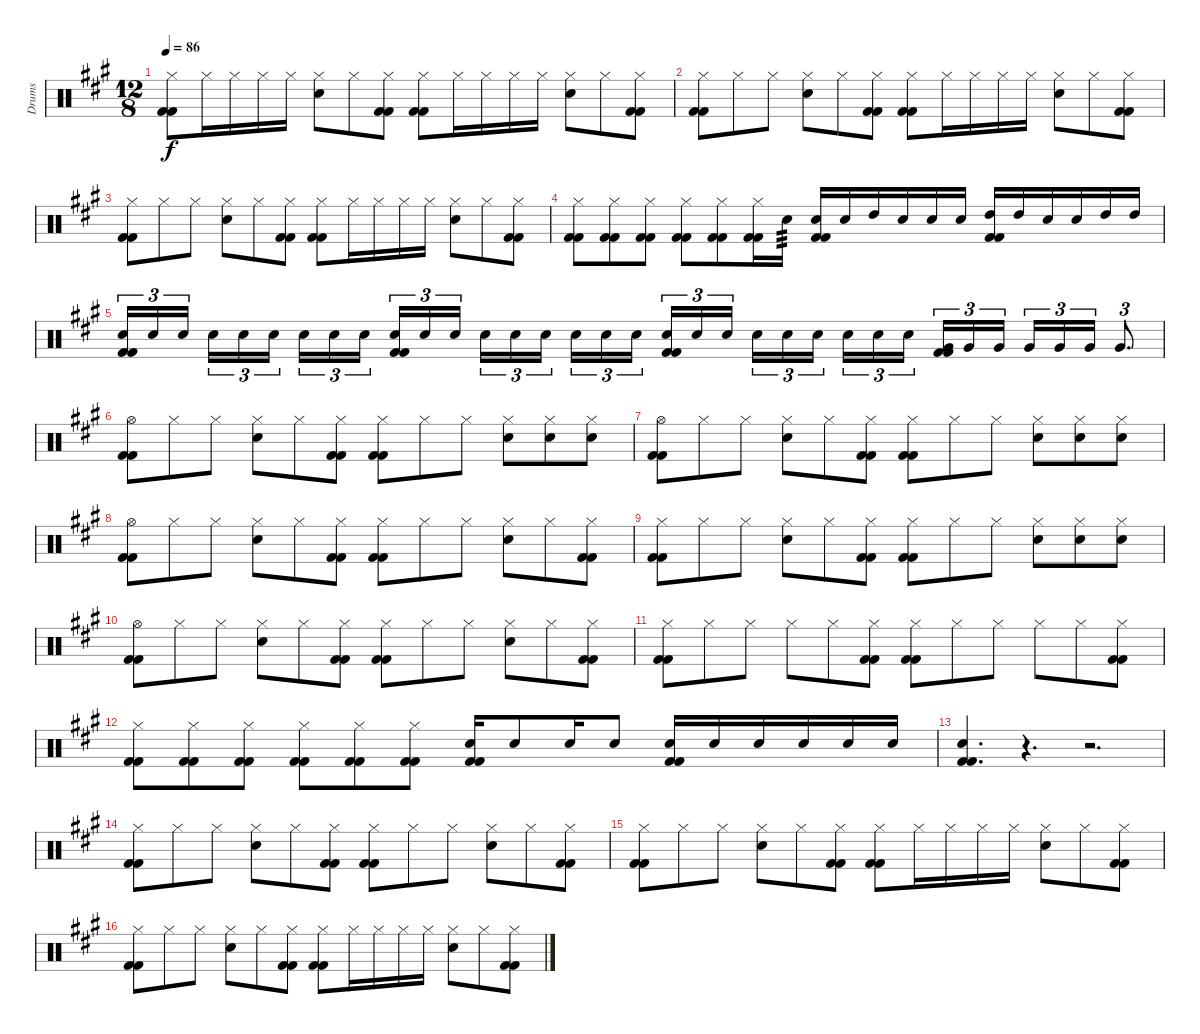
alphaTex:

\track ("Drums" "Drums") {instrument percussion}
\staff {score}
\articulation defaults
\ts (12 8)
\tempo 86
\clef neutral
\ks a
("Hi-Hat (closed)" "Kick (hit) 2" "Kick (hit) 2").8{dy f} "Hi-Hat (closed)".16 "Hi-Hat (closed)".16 "Hi-Hat (closed)".16 "Hi-Hat (closed)".16 ("Hi-Hat (closed)" "Snare (hit) 2").8 "Hi-Hat (closed)".8 ("Hi-Hat (closed)" "Kick (hit) 2" "Kick (hit) 2").8 ("Hi-Hat (closed)" "Kick (hit) 2" "Kick (hit) 2").8 "Hi-Hat (closed)".16 "Hi-Hat (closed)".16 "Hi-Hat (closed)".16 "Hi-Hat (closed)".16 ("Hi-Hat (closed)" "Snare (hit) 2").8 "Hi-Hat (closed)".8 ("Hi-Hat (closed)" "Kick (hit) 2" "Kick (hit) 2").8 |
("Hi-Hat (closed)" "Kick (hit) 2" "Kick (hit) 2").8 "Hi-Hat (closed)".8 "Hi-Hat (closed)".8 ("Hi-Hat (closed)" "Snare (hit) 2").8 "Hi-Hat (closed)".8 ("Hi-Hat (closed)" "Kick (hit) 2" "Kick (hit) 2").8 ("Hi-Hat (closed)" "Kick (hit) 2" "Kick (hit) 2").8 "Hi-Hat (closed)".16 "Hi-Hat (closed)".16 "Hi-Hat (closed)".16 "Hi-Hat (closed)".16 ("Hi-Hat (closed)" "Snare (hit) 2").8 "Hi-Hat (closed)".8 ("Hi-Hat (closed)" "Kick (hit) 2" "Kick (hit) 2").8 |
("Hi-Hat (closed)" "Kick (hit) 2" "Kick (hit) 2").8 "Hi-Hat (closed)".8 "Hi-Hat (closed)".8 ("Hi-Hat (closed)" "Snare (hit) 2").8 "Hi-Hat (closed)".8 ("Hi-Hat (closed)" "Kick (hit) 2" "Kick (hit) 2").8 ("Hi-Hat (closed)" "Kick (hit) 2" "Kick (hit) 2").8 "Hi-Hat (closed)".16 "Hi-Hat (closed)".16 "Hi-Hat (closed)".16 "Hi-Hat (closed)".16 ("Hi-Hat (closed)" "Snare (hit) 2").8 "Hi-Hat (closed)".8 ("Hi-Hat (closed)" "Kick (hit) 2" "Kick (hit) 2").8 |
("Hi-Hat (closed)" "Kick (hit) 2" "Kick (hit) 2").8 ("Hi-Hat (closed)" "Kick (hit) 2" "Kick (hit) 2").8 ("Hi-Hat (closed)" "Kick (hit) 2" "Kick (hit) 2").8 ("Hi-Hat (closed)" "Kick (hit) 2" "Kick (hit) 2").8 ("Hi-Hat (closed)" "Kick (hit) 2" "Kick (hit) 2").8 ("Hi-Hat (closed)" "Kick (hit) 2" "Kick (hit) 2").16 "Snare (hit) 2".16{tp 3} ("Snare (hit) 2" "Kick (hit) 2" "Kick (hit) 2").16 "Snare (hit) 2".16 "High Tom (hit)".16 "Snare (hit) 2".16 "Snare (hit) 2".16 "Snare (hit) 2".16 ("High Tom (hit)" "Kick (hit) 2" "Kick (hit) 2").16 "High Tom (hit)".16 "Snare (hit) 2".16 "Snare (hit) 2".16 "High Tom (hit)".16 "High Tom (hit)".16 |
("Snare (hit) 2" "Kick (hit) 2" "Kick (hit) 2").16{tu (3 2)} "Snare (hit) 2".16{tu (3 2)} "Snare (hit) 2".16{tu (3 2) beam splitsecondary} "Snare (hit) 2".16{tu (3 2)} "Snare (hit) 2".16{tu (3 2)} "Snare (hit) 2".16{tu (3 2) beam splitsecondary} "Snare (hit) 2".16{tu (3 2)} "Snare (hit) 2".16{tu (3 2)} "Snare (hit) 2".16{tu (3 2)} ("Snare (hit) 2" "Kick (hit) 2" "Kick (hit) 2").16{tu (3 2)} "Snare (hit) 2".16{tu (3 2)} "Snare (hit) 2".16{tu (3 2) beam splitsecondary} "Snare (hit) 2".16{tu (3 2)} "Snare (hit) 2".16{tu (3 2)} "Snare (hit) 2".16{tu (3 2) beam splitsecondary} "Snare (hit) 2".16{tu (3 2)} "Snare (hit) 2".16{tu (3 2)} "Snare (hit) 2".16{tu (3 2)} ("Snare (hit) 2" "Kick (hit) 2" "Kick (hit) 2").16{tu (3 2)} "Snare (hit) 2".16{tu (3 2)} "Snare (hit) 2".16{tu (3 2) beam splitsecondary} "Snare (hit) 2".16{tu (3 2)} "Snare (hit) 2".16{tu (3 2)} "Snare (hit) 2".16{tu (3 2) beam splitsecondary} "Snare (hit) 2".16{tu (3 2)} "Snare (hit) 2".16{tu (3 2)} "Snare (hit) 2".16{tu (3 2)} ("Very Low Tom (hit)" "Kick (hit) 2" "Kick (hit) 2").16{tu (3 2)} "Very Low Tom (hit)".16{tu (3 2)} "Very Low Tom (hit)".16{tu (3 2) beam splitsecondary} "Very Low Tom (hit)".16{tu (3 2)} "Very Low Tom (hit)".16{tu (3 2)} "Very Low Tom (hit)".16{tu (3 2)} "Very Low Tom (hit)".8{d tu (3 2)} |
("Hi-Hat (open)" "Kick (hit) 2" "Kick (hit) 2").8 "Hi-Hat (closed)".8 "Hi-Hat (closed)".8 ("Hi-Hat (closed)" "Snare (hit) 2").8 "Hi-Hat (closed)".8 ("Hi-Hat (closed)" "Kick (hit) 2" "Kick (hit) 2").8 ("Hi-Hat (closed)" "Kick (hit) 2" "Kick (hit) 2").8 "Hi-Hat (closed)".8 "Hi-Hat (closed)".8 ("Hi-Hat (closed)" "Snare (hit) 2").8 ("Hi-Hat (closed)" "Snare (hit) 2").8 ("Hi-Hat (closed)" "Snare (hit) 2").8 |
("Hi-Hat (open)" "Kick (hit) 2" "Kick (hit) 2").8 "Hi-Hat (closed)".8 "Hi-Hat (closed)".8 ("Hi-Hat (closed)" "Snare (hit) 2").8 "Hi-Hat (closed)".8 ("Hi-Hat (closed)" "Kick (hit) 2" "Kick (hit) 2").8 ("Hi-Hat (closed)" "Kick (hit) 2" "Kick (hit) 2").8 "Hi-Hat (closed)".8 "Hi-Hat (closed)".8 ("Hi-Hat (closed)" "Snare (hit) 2").8 ("Hi-Hat (closed)" "Snare (hit) 2").8 ("Hi-Hat (closed)" "Snare (hit) 2").8 |
("Hi-Hat (open)" "Kick (hit) 2" "Kick (hit) 2").8 "Hi-Hat (closed)".8 "Hi-Hat (closed)".8 ("Hi-Hat (closed)" "Snare (hit) 2").8 "Hi-Hat (closed)".8 ("Hi-Hat (closed)" "Kick (hit) 2" "Kick (hit) 2").8 ("Hi-Hat (closed)" "Kick (hit) 2" "Kick (hit) 2").8 "Hi-Hat (closed)".8 "Hi-Hat (closed)".8 ("Hi-Hat (closed)" "Snare (hit) 2").8 "Hi-Hat (closed)".8 ("Hi-Hat (closed)" "Kick (hit) 2" "Kick (hit) 2").8 |
("Hi-Hat (closed)" "Kick (hit) 2" "Kick (hit) 2").8 "Hi-Hat (closed)".8 "Hi-Hat (closed)".8 ("Hi-Hat (closed)" "Snare (hit) 2").8 "Hi-Hat (closed)".8 ("Hi-Hat (closed)" "Kick (hit) 2" "Kick (hit) 2").8 ("Hi-Hat (closed)" "Kick (hit) 2" "Kick (hit) 2").8 "Hi-Hat (closed)".8 "Hi-Hat (closed)".8 ("Hi-Hat (closed)" "Snare (hit) 2").8 ("Hi-Hat (closed)" "Snare (hit) 2").8 ("Hi-Hat (closed)" "Snare (hit) 2").8 |
("Hi-Hat (open)" "Kick (hit) 2" "Kick (hit) 2").8 "Hi-Hat (closed)".8 "Hi-Hat (closed)".8 ("Hi-Hat (closed)" "Snare (hit) 2").8 "Hi-Hat (closed)".8 ("Hi-Hat (closed)" "Kick (hit) 2" "Kick (hit) 2").8 ("Hi-Hat (closed)" "Kick (hit) 2" "Kick (hit) 2").8 "Hi-Hat (closed)".8 "Hi-Hat (closed)".8 ("Hi-Hat (closed)" "Snare (hit) 2").8 "Hi-Hat (closed)".8 ("Hi-Hat (closed)" "Kick (hit) 2" "Kick (hit) 2").8 |
("Hi-Hat (closed)" "Kick (hit) 2" "Kick (hit) 2").8 "Hi-Hat (closed)".8 "Hi-Hat (closed)".8 "Hi-Hat (closed)".8 "Hi-Hat (closed)".8 ("Hi-Hat (closed)" "Kick (hit) 2" "Kick (hit) 2").8 ("Hi-Hat (closed)" "Kick (hit) 2" "Kick (hit) 2").8 "Hi-Hat (closed)".8 "Hi-Hat (closed)".8 "Hi-Hat (closed)".8 "Hi-Hat (closed)".8 ("Hi-Hat (closed)" "Kick (hit) 2" "Kick (hit) 2").8 |
("Hi-Hat (closed)" "Kick (hit) 2" "Kick (hit) 2").8 ("Hi-Hat (closed)" "Kick (hit) 2" "Kick (hit) 2").8 ("Hi-Hat (closed)" "Kick (hit) 2" "Kick (hit) 2").8 ("Hi-Hat (closed)" "Kick (hit) 2" "Kick (hit) 2").8 ("Hi-Hat (closed)" "Kick (hit) 2" "Kick (hit) 2").8 ("Hi-Hat (closed)" "Kick (hit) 2" "Kick (hit) 2").8 ("Snare (hit) 2" "Kick (hit) 2" "Kick (hit) 2").16 "Snare (hit) 2".8 "Snare (hit) 2".16 "Snare (hit) 2".8 ("Snare (hit) 2" "Kick (hit) 2" "Kick (hit) 2").16 "Snare (hit) 2".16 "Snare (hit) 2".16 "Snare (hit) 2".16 "Snare (hit) 2".16 "Snare (hit) 2".16 |
("Snare (hit) 2" "Kick (hit) 2" "Kick (hit) 2").4{d} r.4{d} r.2{d} |
("Hi-Hat (closed)" "Kick (hit) 2" "Kick (hit) 2").8 "Hi-Hat (closed)".8 "Hi-Hat (closed)".8 ("Hi-Hat (closed)" "Snare (hit) 2").8 "Hi-Hat (closed)".8 ("Hi-Hat (closed)" "Kick (hit) 2" "Kick (hit) 2").8 ("Hi-Hat (closed)" "Kick (hit) 2" "Kick (hit) 2").8 "Hi-Hat (closed)".8 "Hi-Hat (closed)".8 ("Hi-Hat (closed)" "Snare (hit) 2").8 "Hi-Hat (closed)".8 ("Hi-Hat (closed)" "Kick (hit) 2" "Kick (hit) 2").8 |
("Hi-Hat (closed)" "Kick (hit) 2" "Kick (hit) 2").8 "Hi-Hat (closed)".8 "Hi-Hat (closed)".8 ("Hi-Hat (closed)" "Snare (hit) 2").8 "Hi-Hat (closed)".8 ("Hi-Hat (closed)" "Kick (hit) 2" "Kick (hit) 2").8 ("Hi-Hat (closed)" "Kick (hit) 2" "Kick (hit) 2").8 "Hi-Hat (closed)".16 "Hi-Hat (closed)".16 "Hi-Hat (closed)".16 "Hi-Hat (closed)".16 ("Hi-Hat (closed)" "Snare (hit) 2").8 "Hi-Hat (closed)".8 ("Hi-Hat (closed)" "Kick (hit) 2" "Kick (hit) 2").8 |
("Hi-Hat (closed)" "Kick (hit) 2" "Kick (hit) 2").8 "Hi-Hat (closed)".8 "Hi-Hat (closed)".8 ("Hi-Hat (closed)" "Snare (hit) 2").8 "Hi-Hat (closed)".8 ("Hi-Hat (closed)" "Kick (hit) 2" "Kick (hit) 2").8 ("Hi-Hat (closed)" "Kick (hit) 2" "Kick (hit) 2").8 "Hi-Hat (closed)".16 "Hi-Hat (closed)".16 "Hi-Hat (closed)".16 "Hi-Hat (closed)".16 ("Hi-Hat (closed)" "Snare (hit) 2").8 "Hi-Hat (closed)".8 ("Hi-Hat (closed)" "Kick (hit) 2" "Kick (hit) 2").8
